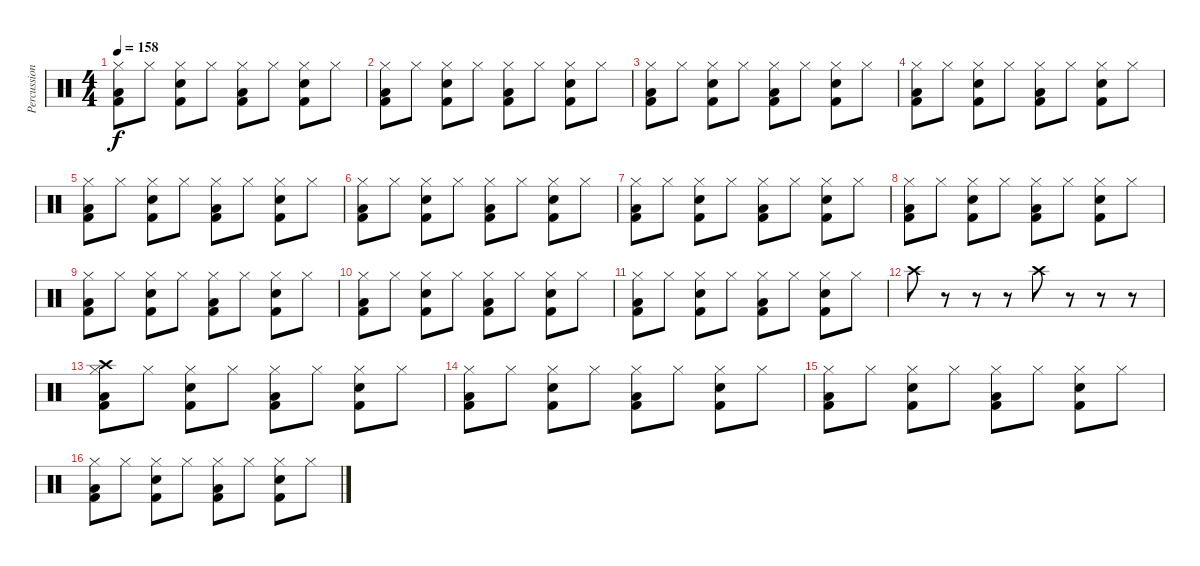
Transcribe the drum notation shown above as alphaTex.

\track ("Percussions" "Percussion") {instrument percussion}
\staff {score}
\articulation defaults
\ts (4 4)
\tempo 158
\clef neutral
\ks c
("Hi-Hat (closed)" "Low Floor Tom (hit)" "Kick (hit) 2").8{dy f} "Hi-Hat (closed)".8 ("Hi-Hat (closed)" "Snare (hit) 2" "Kick (hit) 2").8 "Hi-Hat (closed)".8 ("Hi-Hat (closed)" "Low Floor Tom (hit)" "Kick (hit) 2").8 "Hi-Hat (closed)".8 ("Hi-Hat (closed)" "Snare (hit) 2" "Kick (hit) 2").8 "Hi-Hat (closed)".8 |
("Hi-Hat (closed)" "Low Floor Tom (hit)" "Kick (hit) 2").8 "Hi-Hat (closed)".8 ("Hi-Hat (closed)" "Snare (hit) 2" "Kick (hit) 2").8 "Hi-Hat (closed)".8 ("Hi-Hat (closed)" "Low Floor Tom (hit)" "Kick (hit) 2").8 "Hi-Hat (closed)".8 ("Hi-Hat (closed)" "Snare (hit) 2" "Kick (hit) 2").8 "Hi-Hat (closed)".8 |
("Hi-Hat (closed)" "Low Floor Tom (hit)" "Kick (hit) 2").8 "Hi-Hat (closed)".8 ("Hi-Hat (closed)" "Snare (hit) 2" "Kick (hit) 2").8 "Hi-Hat (closed)".8 ("Hi-Hat (closed)" "Low Floor Tom (hit)" "Kick (hit) 2").8 "Hi-Hat (closed)".8 ("Hi-Hat (closed)" "Snare (hit) 2" "Kick (hit) 2").8 "Hi-Hat (closed)".8 |
("Hi-Hat (closed)" "Low Floor Tom (hit)" "Kick (hit) 2").8 "Hi-Hat (closed)".8 ("Hi-Hat (closed)" "Snare (hit) 2" "Kick (hit) 2").8 "Hi-Hat (closed)".8 ("Hi-Hat (closed)" "Low Floor Tom (hit)" "Kick (hit) 2").8 "Hi-Hat (closed)".8 ("Hi-Hat (closed)" "Snare (hit) 2" "Kick (hit) 2").8 "Hi-Hat (closed)".8 |
("Hi-Hat (closed)" "Low Floor Tom (hit)" "Kick (hit) 2").8 "Hi-Hat (closed)".8 ("Hi-Hat (closed)" "Snare (hit) 2" "Kick (hit) 2").8 "Hi-Hat (closed)".8 ("Hi-Hat (closed)" "Low Floor Tom (hit)" "Kick (hit) 2").8 "Hi-Hat (closed)".8 ("Hi-Hat (closed)" "Snare (hit) 2" "Kick (hit) 2").8 "Hi-Hat (closed)".8 |
("Hi-Hat (closed)" "Low Floor Tom (hit)" "Kick (hit) 2").8 "Hi-Hat (closed)".8 ("Hi-Hat (closed)" "Snare (hit) 2" "Kick (hit) 2").8 "Hi-Hat (closed)".8 ("Hi-Hat (closed)" "Low Floor Tom (hit)" "Kick (hit) 2").8 "Hi-Hat (closed)".8 ("Hi-Hat (closed)" "Snare (hit) 2" "Kick (hit) 2").8 "Hi-Hat (closed)".8 |
("Hi-Hat (closed)" "Low Floor Tom (hit)" "Kick (hit) 2").8 "Hi-Hat (closed)".8 ("Hi-Hat (closed)" "Snare (hit) 2" "Kick (hit) 2").8 "Hi-Hat (closed)".8 ("Hi-Hat (closed)" "Low Floor Tom (hit)" "Kick (hit) 2").8 "Hi-Hat (closed)".8 ("Hi-Hat (closed)" "Snare (hit) 2" "Kick (hit) 2").8 "Hi-Hat (closed)".8 |
("Hi-Hat (closed)" "Low Floor Tom (hit)" "Kick (hit) 2").8 "Hi-Hat (closed)".8 ("Hi-Hat (closed)" "Snare (hit) 2" "Kick (hit) 2").8 "Hi-Hat (closed)".8 ("Hi-Hat (closed)" "Low Floor Tom (hit)" "Kick (hit) 2").8 "Hi-Hat (closed)".8 ("Hi-Hat (closed)" "Snare (hit) 2" "Kick (hit) 2").8 "Hi-Hat (closed)".8 |
("Hi-Hat (closed)" "Low Floor Tom (hit)" "Kick (hit) 2").8 "Hi-Hat (closed)".8 ("Hi-Hat (closed)" "Snare (hit) 2" "Kick (hit) 2").8 "Hi-Hat (closed)".8 ("Hi-Hat (closed)" "Low Floor Tom (hit)" "Kick (hit) 2").8 "Hi-Hat (closed)".8 ("Hi-Hat (closed)" "Snare (hit) 2" "Kick (hit) 2").8 "Hi-Hat (closed)".8 |
("Hi-Hat (closed)" "Low Floor Tom (hit)" "Kick (hit) 2").8 "Hi-Hat (closed)".8 ("Hi-Hat (closed)" "Snare (hit) 2" "Kick (hit) 2").8 "Hi-Hat (closed)".8 ("Hi-Hat (closed)" "Low Floor Tom (hit)" "Kick (hit) 2").8 "Hi-Hat (closed)".8 ("Hi-Hat (closed)" "Snare (hit) 2" "Kick (hit) 2").8 "Hi-Hat (closed)".8 |
("Hi-Hat (closed)" "Low Floor Tom (hit)" "Kick (hit) 2").8 "Hi-Hat (closed)".8 ("Hi-Hat (closed)" "Snare (hit) 2" "Kick (hit) 2").8 "Hi-Hat (closed)".8 ("Hi-Hat (closed)" "Low Floor Tom (hit)" "Kick (hit) 2").8 "Hi-Hat (closed)".8 ("Hi-Hat (closed)" "Snare (hit) 2" "Kick (hit) 2").8 "Hi-Hat (closed)".8 |
"Crash high (hit)".8{volume 16} r.8 r.8 r.8 "Crash high (hit)".8 r.8 r.8 r.8 |
("Hi-Hat (closed)" "Crash high (hit)" "Low Floor Tom (hit)" "Kick (hit) 2").8 "Hi-Hat (closed)".8 ("Hi-Hat (closed)" "Snare (hit) 2" "Kick (hit) 2").8 "Hi-Hat (closed)".8 ("Hi-Hat (closed)" "Low Floor Tom (hit)" "Kick (hit) 2").8 "Hi-Hat (closed)".8 ("Hi-Hat (closed)" "Snare (hit) 2" "Kick (hit) 2").8 "Hi-Hat (closed)".8 |
("Hi-Hat (closed)" "Low Floor Tom (hit)" "Kick (hit) 2").8 "Hi-Hat (closed)".8 ("Hi-Hat (closed)" "Snare (hit) 2" "Kick (hit) 2").8 "Hi-Hat (closed)".8 ("Hi-Hat (closed)" "Low Floor Tom (hit)" "Kick (hit) 2").8 "Hi-Hat (closed)".8 ("Hi-Hat (closed)" "Snare (hit) 2" "Kick (hit) 2").8 "Hi-Hat (closed)".8 |
("Hi-Hat (closed)" "Low Floor Tom (hit)" "Kick (hit) 2").8 "Hi-Hat (closed)".8 ("Hi-Hat (closed)" "Snare (hit) 2" "Kick (hit) 2").8 "Hi-Hat (closed)".8 ("Hi-Hat (closed)" "Low Floor Tom (hit)" "Kick (hit) 2").8 "Hi-Hat (closed)".8 ("Hi-Hat (closed)" "Snare (hit) 2" "Kick (hit) 2").8 "Hi-Hat (closed)".8 |
("Hi-Hat (closed)" "Low Floor Tom (hit)" "Kick (hit) 2").8 "Hi-Hat (closed)".8 ("Hi-Hat (closed)" "Snare (hit) 2" "Kick (hit) 2").8 "Hi-Hat (closed)".8 ("Hi-Hat (closed)" "Low Floor Tom (hit)" "Kick (hit) 2").8 "Hi-Hat (closed)".8 ("Hi-Hat (closed)" "Snare (hit) 2" "Kick (hit) 2").8 "Hi-Hat (closed)".8
